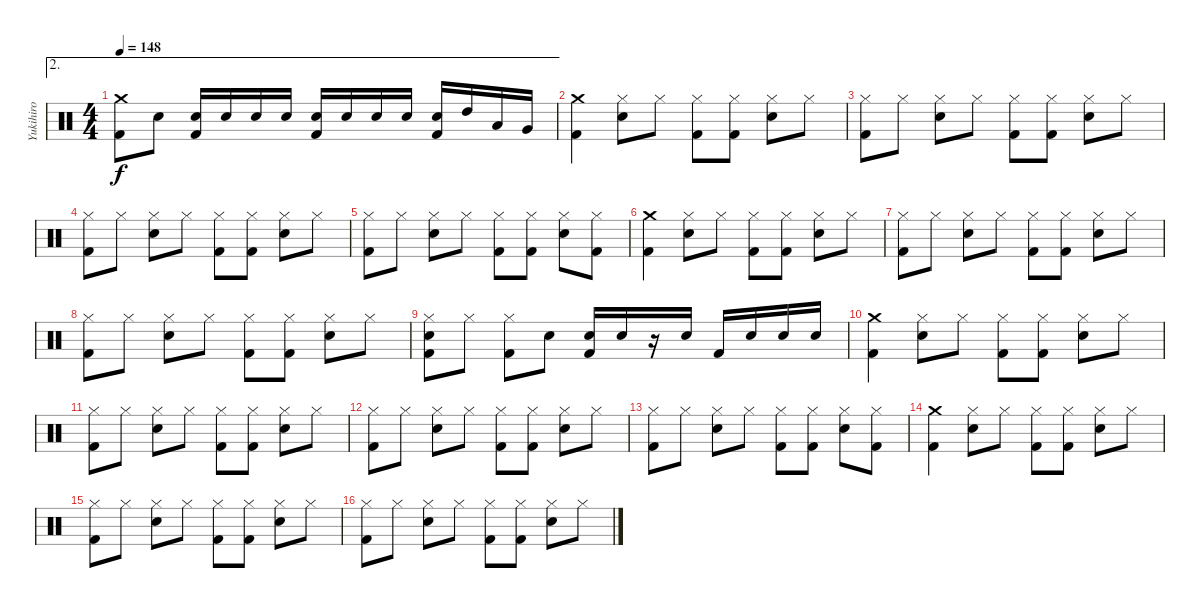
\track ("Yukihiro" "Yukihiro") {instrument percussion}
\staff {score}
\articulation defaults
\ae 2
\ts (4 4)
\tempo 148
\clef neutral
\ks c
("Crash medium (hit)" "Kick (hit) 2").8{dy f} "Snare (hit) 2".8 ("Snare (hit) 2" "Kick (hit) 2").16 "Snare (hit) 2".16 "Snare (hit) 2".16 "Snare (hit) 2".16 ("Snare (hit) 2" "Kick (hit) 2").16 "Snare (hit) 2".16 "Snare (hit) 2".16 "Snare (hit) 2".16 ("Snare (hit) 2" "Kick (hit) 2").16 "High Tom (hit)".16 "Low Tom (hit)".16 "Very Low Tom (hit)".16 |
("Crash medium (hit)" "Kick (hit) 2").4 ("Hi-Hat (closed)" "Snare (hit) 2").8 "Hi-Hat (closed)".8 ("Hi-Hat (closed)" "Kick (hit) 2").8 ("Hi-Hat (closed)" "Kick (hit) 2").8 ("Hi-Hat (closed)" "Snare (hit) 2").8 "Hi-Hat (closed)".8 |
("Hi-Hat (closed)" "Kick (hit) 2").8 "Hi-Hat (closed)".8 ("Hi-Hat (closed)" "Snare (hit) 2").8 "Hi-Hat (closed)".8 ("Hi-Hat (closed)" "Kick (hit) 2").8 ("Hi-Hat (closed)" "Kick (hit) 2").8 ("Hi-Hat (closed)" "Snare (hit) 2").8 "Hi-Hat (closed)".8 |
("Hi-Hat (closed)" "Kick (hit) 2").8 "Hi-Hat (closed)".8 ("Hi-Hat (closed)" "Snare (hit) 2").8 "Hi-Hat (closed)".8 ("Hi-Hat (closed)" "Kick (hit) 2").8 ("Hi-Hat (closed)" "Kick (hit) 2").8 ("Hi-Hat (closed)" "Snare (hit) 2").8 "Hi-Hat (closed)".8 |
("Hi-Hat (closed)" "Kick (hit) 2").8 "Hi-Hat (closed)".8 ("Hi-Hat (closed)" "Snare (hit) 2").8 "Hi-Hat (closed)".8 ("Hi-Hat (closed)" "Kick (hit) 2").8 ("Hi-Hat (closed)" "Kick (hit) 2").8 ("Hi-Hat (closed)" "Snare (hit) 2").8 ("Hi-Hat (closed)" "Kick (hit) 2").8 |
("Crash medium (hit)" "Kick (hit) 2").4 ("Hi-Hat (closed)" "Snare (hit) 2").8 "Hi-Hat (closed)".8 ("Hi-Hat (closed)" "Kick (hit) 2").8 ("Hi-Hat (closed)" "Kick (hit) 2").8 ("Hi-Hat (closed)" "Snare (hit) 2").8 "Hi-Hat (closed)".8 |
("Hi-Hat (closed)" "Kick (hit) 2").8 "Hi-Hat (closed)".8 ("Hi-Hat (closed)" "Snare (hit) 2").8 "Hi-Hat (closed)".8 ("Hi-Hat (closed)" "Kick (hit) 2").8 ("Hi-Hat (closed)" "Kick (hit) 2").8 ("Hi-Hat (closed)" "Snare (hit) 2").8 "Hi-Hat (closed)".8 |
("Hi-Hat (closed)" "Kick (hit) 2").8 "Hi-Hat (closed)".8 ("Hi-Hat (closed)" "Snare (hit) 2").8 "Hi-Hat (closed)".8 ("Hi-Hat (closed)" "Kick (hit) 2").8 ("Hi-Hat (closed)" "Kick (hit) 2").8 ("Hi-Hat (closed)" "Snare (hit) 2").8 "Hi-Hat (closed)".8 |
("Hi-Hat (closed)" "Snare (hit) 2" "Kick (hit) 2").8 "Hi-Hat (closed)".8 ("Hi-Hat (closed)" "Kick (hit) 2").8 "Snare (hit) 2".8 ("Snare (hit) 2" "Kick (hit) 2").16 "Snare (hit) 2".16 r.16 "Snare (hit) 2".16 "Kick (hit) 2".16 "Snare (hit) 2".16 "Snare (hit) 2".16 "Snare (hit) 2".16 |
("Crash medium (hit)" "Kick (hit) 2").4 ("Hi-Hat (closed)" "Snare (hit) 2").8 "Hi-Hat (closed)".8 ("Hi-Hat (closed)" "Kick (hit) 2").8 ("Hi-Hat (closed)" "Kick (hit) 2").8 ("Hi-Hat (closed)" "Snare (hit) 2").8 "Hi-Hat (closed)".8 |
("Hi-Hat (closed)" "Kick (hit) 2").8 "Hi-Hat (closed)".8 ("Hi-Hat (closed)" "Snare (hit) 2").8 "Hi-Hat (closed)".8 ("Hi-Hat (closed)" "Kick (hit) 2").8 ("Hi-Hat (closed)" "Kick (hit) 2").8 ("Hi-Hat (closed)" "Snare (hit) 2").8 "Hi-Hat (closed)".8 |
("Hi-Hat (closed)" "Kick (hit) 2").8 "Hi-Hat (closed)".8 ("Hi-Hat (closed)" "Snare (hit) 2").8 "Hi-Hat (closed)".8 ("Hi-Hat (closed)" "Kick (hit) 2").8 ("Hi-Hat (closed)" "Kick (hit) 2").8 ("Hi-Hat (closed)" "Snare (hit) 2").8 "Hi-Hat (closed)".8 |
("Hi-Hat (closed)" "Kick (hit) 2").8 "Hi-Hat (closed)".8 ("Hi-Hat (closed)" "Snare (hit) 2").8 "Hi-Hat (closed)".8 ("Hi-Hat (closed)" "Kick (hit) 2").8 ("Hi-Hat (closed)" "Kick (hit) 2").8 ("Hi-Hat (closed)" "Snare (hit) 2").8 ("Hi-Hat (closed)" "Kick (hit) 2").8 |
("Crash medium (hit)" "Kick (hit) 2").4 ("Hi-Hat (closed)" "Snare (hit) 2").8 "Hi-Hat (closed)".8 ("Hi-Hat (closed)" "Kick (hit) 2").8 ("Hi-Hat (closed)" "Kick (hit) 2").8 ("Hi-Hat (closed)" "Snare (hit) 2").8 "Hi-Hat (closed)".8 |
("Hi-Hat (closed)" "Kick (hit) 2").8 "Hi-Hat (closed)".8 ("Hi-Hat (closed)" "Snare (hit) 2").8 "Hi-Hat (closed)".8 ("Hi-Hat (closed)" "Kick (hit) 2").8 ("Hi-Hat (closed)" "Kick (hit) 2").8 ("Hi-Hat (closed)" "Snare (hit) 2").8 "Hi-Hat (closed)".8 |
("Hi-Hat (closed)" "Kick (hit) 2").8 "Hi-Hat (closed)".8 ("Hi-Hat (closed)" "Snare (hit) 2").8 "Hi-Hat (closed)".8 ("Hi-Hat (closed)" "Kick (hit) 2").8 ("Hi-Hat (closed)" "Kick (hit) 2").8 ("Hi-Hat (closed)" "Snare (hit) 2").8 "Hi-Hat (closed)".8
